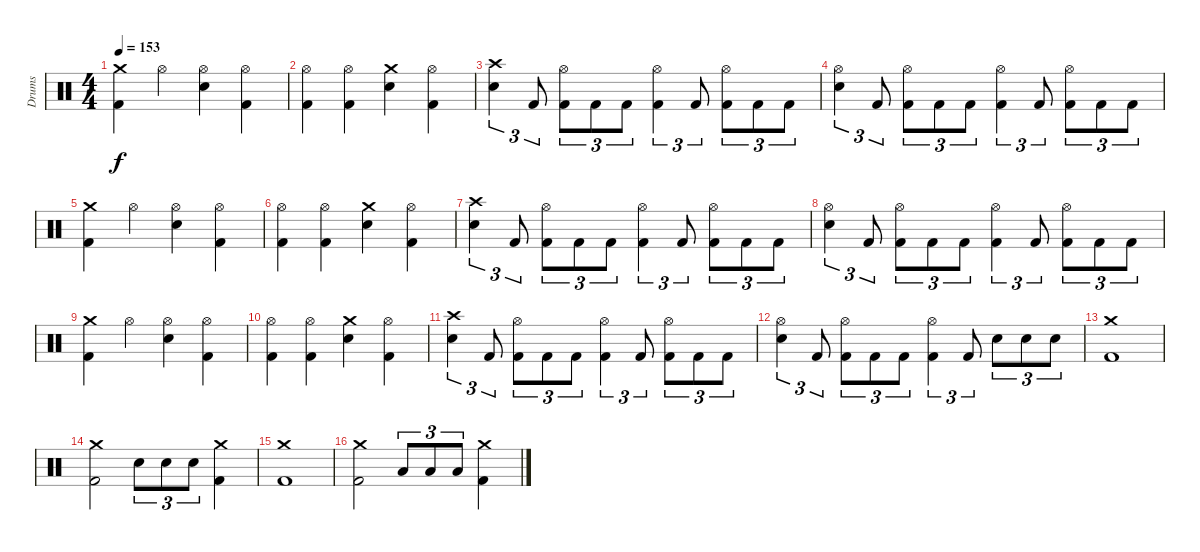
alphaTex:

\track ("Drums" "Drums") {instrument percussion}
\staff {score}
\articulation defaults
\ts (4 4)
\tempo 153
\clef neutral
\ks c
("Crash medium (hit)" "Kick (hit) 2").4{dy f} "Hi-Hat (open)".4 ("Hi-Hat (open)" "Electric Snare (hit)").4 ("Hi-Hat (open)" "Kick (hit) 2").4 |
("Hi-Hat (open)" "Kick (hit) 2").4 ("Hi-Hat (open)" "Kick (hit) 2").4 ("Crash medium (hit)" "Electric Snare (hit)").4 ("Hi-Hat (open)" "Kick (hit) 2").4 |
("Crash high (hit)" "Electric Snare (hit)").4{tu (3 2)} "Kick (hit) 2".8{tu (3 2)} ("Hi-Hat (open)" "Kick (hit) 2").8{tu (3 2)} "Kick (hit) 2".8{tu (3 2)} "Kick (hit) 2".8{tu (3 2)} ("Hi-Hat (open)" "Kick (hit) 2").4{tu (3 2)} "Kick (hit) 2".8{tu (3 2)} ("Hi-Hat (open)" "Kick (hit) 2").8{tu (3 2)} "Kick (hit) 2".8{tu (3 2)} "Kick (hit) 2".8{tu (3 2)} |
("Hi-Hat (open)" "Electric Snare (hit)").4{tu (3 2)} "Kick (hit) 2".8{tu (3 2)} ("Hi-Hat (open)" "Kick (hit) 2").8{tu (3 2)} "Kick (hit) 2".8{tu (3 2)} "Kick (hit) 2".8{tu (3 2)} ("Hi-Hat (open)" "Kick (hit) 2").4{tu (3 2)} "Kick (hit) 2".8{tu (3 2)} ("Hi-Hat (open)" "Kick (hit) 2").8{tu (3 2)} "Kick (hit) 2".8{tu (3 2)} "Kick (hit) 2".8{tu (3 2)} |
("Crash medium (hit)" "Kick (hit) 2").4 "Hi-Hat (open)".4 ("Hi-Hat (open)" "Electric Snare (hit)").4 ("Hi-Hat (open)" "Kick (hit) 2").4 |
("Hi-Hat (open)" "Kick (hit) 2").4 ("Hi-Hat (open)" "Kick (hit) 2").4 ("Crash medium (hit)" "Electric Snare (hit)").4 ("Hi-Hat (open)" "Kick (hit) 2").4 |
("Crash high (hit)" "Electric Snare (hit)").4{tu (3 2)} "Kick (hit) 2".8{tu (3 2)} ("Hi-Hat (open)" "Kick (hit) 2").8{tu (3 2)} "Kick (hit) 2".8{tu (3 2)} "Kick (hit) 2".8{tu (3 2)} ("Hi-Hat (open)" "Kick (hit) 2").4{tu (3 2)} "Kick (hit) 2".8{tu (3 2)} ("Hi-Hat (open)" "Kick (hit) 2").8{tu (3 2)} "Kick (hit) 2".8{tu (3 2)} "Kick (hit) 2".8{tu (3 2)} |
("Hi-Hat (open)" "Electric Snare (hit)").4{tu (3 2)} "Kick (hit) 2".8{tu (3 2)} ("Hi-Hat (open)" "Kick (hit) 2").8{tu (3 2)} "Kick (hit) 2".8{tu (3 2)} "Kick (hit) 2".8{tu (3 2)} ("Hi-Hat (open)" "Kick (hit) 2").4{tu (3 2)} "Kick (hit) 2".8{tu (3 2)} ("Hi-Hat (open)" "Kick (hit) 2").8{tu (3 2)} "Kick (hit) 2".8{tu (3 2)} "Kick (hit) 2".8{tu (3 2)} |
("Crash medium (hit)" "Kick (hit) 2").4 "Hi-Hat (open)".4 ("Hi-Hat (open)" "Electric Snare (hit)").4 ("Hi-Hat (open)" "Kick (hit) 2").4 |
("Hi-Hat (open)" "Kick (hit) 2").4 ("Hi-Hat (open)" "Kick (hit) 2").4 ("Crash medium (hit)" "Electric Snare (hit)").4 ("Hi-Hat (open)" "Kick (hit) 2").4 |
("Crash high (hit)" "Electric Snare (hit)").4{tu (3 2)} "Kick (hit) 2".8{tu (3 2)} ("Hi-Hat (open)" "Kick (hit) 2").8{tu (3 2)} "Kick (hit) 2".8{tu (3 2)} "Kick (hit) 2".8{tu (3 2)} ("Hi-Hat (open)" "Kick (hit) 2").4{tu (3 2)} "Kick (hit) 2".8{tu (3 2)} ("Hi-Hat (open)" "Kick (hit) 2").8{tu (3 2)} "Kick (hit) 2".8{tu (3 2)} "Kick (hit) 2".8{tu (3 2)} |
("Hi-Hat (open)" "Electric Snare (hit)").4{tu (3 2)} "Kick (hit) 2".8{tu (3 2)} ("Hi-Hat (open)" "Kick (hit) 2").8{tu (3 2)} "Kick (hit) 2".8{tu (3 2)} "Kick (hit) 2".8{tu (3 2)} ("Hi-Hat (open)" "Kick (hit) 2").4{tu (3 2)} "Kick (hit) 2".8{tu (3 2)} "Electric Snare (hit)".8{tu (3 2)} "Electric Snare (hit)".8{tu (3 2)} "Electric Snare (hit)".8{tu (3 2)} |
("Crash medium (hit)" "Kick (hit) 2").1 |
("Crash medium (hit)" "Kick (hit) 2").2 "Electric Snare (hit)".8{tu (3 2)} "Electric Snare (hit)".8{tu (3 2)} "Electric Snare (hit)".8{tu (3 2)} ("Crash medium (hit)" "Kick (hit) 2").4 |
("Crash medium (hit)" "Kick (hit) 2").1 |
("Crash medium (hit)" "Kick (hit) 2").2 "Low Tom (hit)".8{tu (3 2)} "Low Tom (hit)".8{tu (3 2)} "Low Tom (hit)".8{tu (3 2)} ("Crash medium (hit)" "Kick (hit) 2").4
